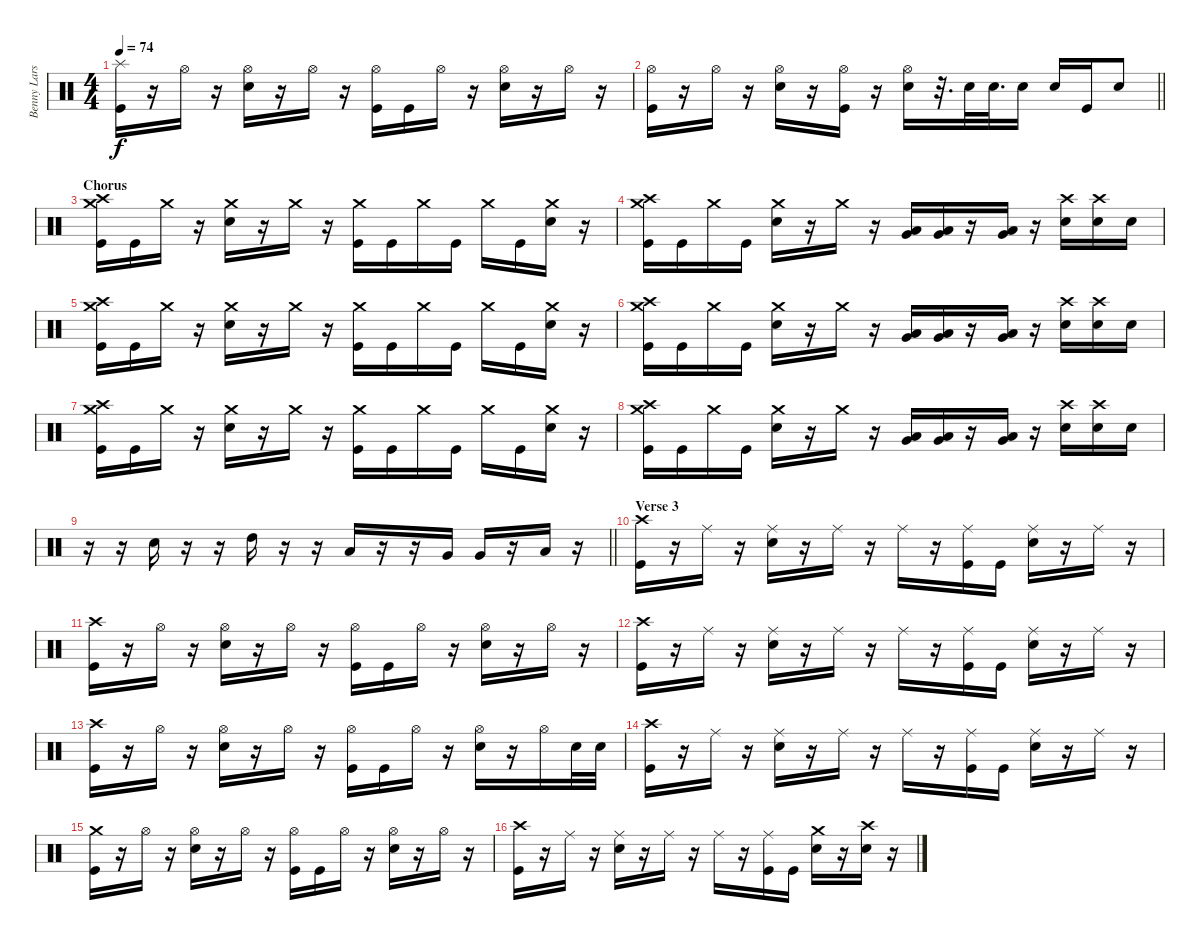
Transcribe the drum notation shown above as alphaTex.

\track ("Benny Larsson" "Benny Lars") {instrument percussion}
\staff {score}
\articulation defaults
\ts (4 4)
\tempo 74
\clef neutral
\ks c
("Splash (hit)" "Kick (hit)").16{dy f} r.16 "Hi-Hat (open)".16 r.16 ("Hi-Hat (open)" "Snare (hit) 2").16 r.16 "Hi-Hat (open)".16 r.16 ("Hi-Hat (open)" "Kick (hit)").16 "Kick (hit)".16 "Hi-Hat (open)".16 r.16 ("Hi-Hat (open)" "Snare (hit) 2").16 r.16 "Hi-Hat (open)".16 r.16 |
\barLineRight lightlight
("Hi-Hat (open)" "Kick (hit)").16 r.16 "Hi-Hat (open)".16 r.16 ("Hi-Hat (open)" "Snare (hit) 2").16 r.16 ("Hi-Hat (open)" "Kick (hit)").16 r.16 ("Hi-Hat (open)" "Snare (hit) 2").16 r.32{d} "Snare (hit) 2".32 "Snare (hit) 2".32{d} "Snare (hit) 2".16 "Snare (hit) 2".16 "Kick (hit)".16 "Snare (hit) 2".8 |
\section ("" "Chorus")
("Crash high (hit)" "Crash medium (hit)" "Kick (hit)").16 "Kick (hit)".16 "Crash medium (hit)".16 r.16 ("Crash medium (hit)" "Snare (hit) 2").16 r.16 "Crash medium (hit)".16 r.16 ("Crash medium (hit)" "Kick (hit)").16 "Kick (hit)".16 "Crash medium (hit)".16 "Kick (hit)".16 "Crash medium (hit)".16 "Kick (hit)".16 ("Crash medium (hit)" "Snare (hit) 2").16 r.16 |
("Crash high (hit)" "Crash medium (hit)" "Kick (hit)").16 "Kick (hit)".16 "Crash medium (hit)".16 "Kick (hit)".16 ("Crash medium (hit)" "Snare (hit) 2").16 r.16 "Crash medium (hit)".16 r.16 ("Very Low Tom (hit)" "Low Floor Tom (hit)").16 ("Very Low Tom (hit)" "Low Floor Tom (hit)").16 r.16 ("Very Low Tom (hit)" "Low Floor Tom (hit)").16 r.16 ("Crash high (hit)" "Snare (hit) 2").16 ("Crash high (hit)" "Snare (hit) 2").16 "Snare (hit) 2".16 |
("Crash high (hit)" "Crash medium (hit)" "Kick (hit)").16 "Kick (hit)".16 "Crash medium (hit)".16 r.16 ("Crash medium (hit)" "Snare (hit) 2").16 r.16 "Crash medium (hit)".16 r.16 ("Crash medium (hit)" "Kick (hit)").16 "Kick (hit)".16 "Crash medium (hit)".16 "Kick (hit)".16 "Crash medium (hit)".16 "Kick (hit)".16 ("Crash medium (hit)" "Snare (hit) 2").16 r.16 |
("Crash high (hit)" "Crash medium (hit)" "Kick (hit)").16 "Kick (hit)".16 "Crash medium (hit)".16 "Kick (hit)".16 ("Crash medium (hit)" "Snare (hit) 2").16 r.16 "Crash medium (hit)".16 r.16 ("Very Low Tom (hit)" "Low Floor Tom (hit)").16 ("Very Low Tom (hit)" "Low Floor Tom (hit)").16 r.16 ("Very Low Tom (hit)" "Low Floor Tom (hit)").16 r.16 ("Crash high (hit)" "Snare (hit) 2").16 ("Crash high (hit)" "Snare (hit) 2").16 "Snare (hit) 2".16 |
("Crash high (hit)" "Crash medium (hit)" "Kick (hit)").16 "Kick (hit)".16 "Crash medium (hit)".16 r.16 ("Crash medium (hit)" "Snare (hit) 2").16 r.16 "Crash medium (hit)".16 r.16 ("Crash medium (hit)" "Kick (hit)").16 "Kick (hit)".16 "Crash medium (hit)".16 "Kick (hit)".16 "Crash medium (hit)".16 "Kick (hit)".16 ("Crash medium (hit)" "Snare (hit) 2").16 r.16 |
("Crash high (hit)" "Crash medium (hit)" "Kick (hit)").16 "Kick (hit)".16 "Crash medium (hit)".16 "Kick (hit)".16 ("Crash medium (hit)" "Snare (hit) 2").16 r.16 "Crash medium (hit)".16 r.16 ("Very Low Tom (hit)" "Low Floor Tom (hit)").16 ("Very Low Tom (hit)" "Low Floor Tom (hit)").16 r.16 ("Very Low Tom (hit)" "Low Floor Tom (hit)").16 r.16 ("Crash high (hit)" "Snare (hit) 2").16 ("Crash high (hit)" "Snare (hit) 2").16 "Snare (hit) 2".16 |
\barLineRight lightlight
r.16 r.16 "Snare (hit) 2".16 r.16 r.16 "High Tom (hit)".16 r.16 r.16 "Low Tom (hit)".16 r.16 r.16 "Very Low Tom (hit)".16 "Very Low Tom (hit)".16 r.16 "Low Floor Tom (hit)".16 r.16 |
\section ("" "Verse 3")
("Crash high (hit)" "Kick (hit)").16 r.16 "Ride (middle)".16 r.16 ("Ride (middle)" "Snare (hit) 2").16 r.16 "Ride (middle)".16 r.16 "Ride (middle)".16 r.16 ("Ride (middle)" "Kick (hit)").16 "Kick (hit)".16 ("Ride (middle)" "Snare (hit) 2").16 r.16 "Ride (middle)".16 r.16 |
("Crash high (hit)" "Kick (hit)").16 r.16 "Hi-Hat (open)".16 r.16 ("Hi-Hat (open)" "Snare (hit) 2").16 r.16 "Hi-Hat (open)".16 r.16 ("Hi-Hat (open)" "Kick (hit)").16 "Kick (hit)".16 "Hi-Hat (open)".16 r.16 ("Hi-Hat (open)" "Snare (hit) 2").16 r.16 "Hi-Hat (open)".16 r.16 |
("Crash high (hit)" "Kick (hit)").16 r.16 "Ride (middle)".16 r.16 ("Ride (middle)" "Snare (hit) 2").16 r.16 "Ride (middle)".16 r.16 "Ride (middle)".16 r.16 ("Ride (middle)" "Kick (hit)").16 "Kick (hit)".16 ("Ride (middle)" "Snare (hit) 2").16 r.16 "Ride (middle)".16 r.16 |
("Crash high (hit)" "Kick (hit)").16 r.16 "Hi-Hat (open)".16 r.16 ("Hi-Hat (open)" "Snare (hit) 2").16 r.16 "Hi-Hat (open)".16 r.16 ("Hi-Hat (open)" "Kick (hit)").16 "Kick (hit)".16 "Hi-Hat (open)".16 r.16 ("Hi-Hat (open)" "Snare (hit) 2").16 r.16 "Hi-Hat (open)".16 "Snare (hit) 2".32 "Snare (hit) 2".32 |
("Crash high (hit)" "Kick (hit)").16 r.16 "Ride (middle)".16 r.16 ("Ride (middle)" "Snare (hit) 2").16 r.16 "Ride (middle)".16 r.16 "Ride (middle)".16 r.16 ("Ride (middle)" "Kick (hit)").16 "Kick (hit)".16 ("Ride (middle)" "Snare (hit) 2").16 r.16 "Ride (middle)".16 r.16 |
("Crash medium (hit)" "Kick (hit)").16 r.16 "Hi-Hat (open)".16 r.16 ("Hi-Hat (open)" "Snare (hit) 2").16 r.16 "Hi-Hat (open)".16 r.16 ("Hi-Hat (open)" "Kick (hit)").16 "Kick (hit)".16 "Hi-Hat (open)".16 r.16 ("Hi-Hat (open)" "Snare (hit) 2").16 r.16 "Hi-Hat (open)".16 r.16 |
("Crash high (hit)" "Kick (hit)").16 r.16 "Ride (middle)".16 r.16 ("Ride (middle)" "Snare (hit) 2").16 r.16 "Ride (middle)".16 r.16 "Ride (middle)".16 r.16 ("Ride (middle)" "Kick (hit)").16 "Kick (hit)".16 ("Crash medium (hit)" "Snare (hit) 2").16 r.16 ("Crash high (hit)" "Snare (hit) 2").16 r.16
